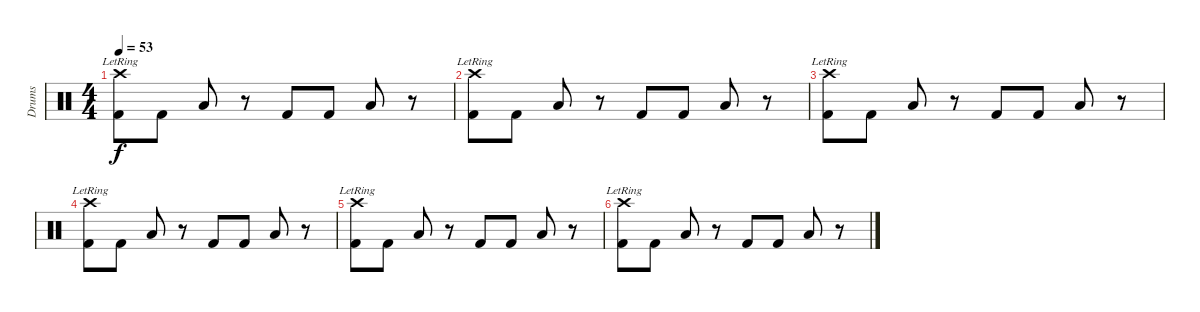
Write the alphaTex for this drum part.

\track ("Drums" "Drums") {instrument percussion}
\staff {score}
\articulation defaults
\ts (4 4)
\tempo 53
\clef neutral
\ks c
("Crash high (hit)"{lr} "Kick (hit) 2").8{dy f volume 16} "Kick (hit) 2".8{volume 16} "Low Floor Tom (hit)".8{volume 16} r.8 "Kick (hit) 2".8{volume 16} "Kick (hit) 2".8{volume 16} "Low Floor Tom (hit)".8{volume 16} r.8 |
("Crash high (hit)"{lr} "Kick (hit) 2").8{volume 16} "Kick (hit) 2".8{volume 16} "Low Floor Tom (hit)".8{volume 16} r.8 "Kick (hit) 2".8{volume 16} "Kick (hit) 2".8{volume 16} "Low Floor Tom (hit)".8{volume 16} r.8 |
("Crash high (hit)"{lr} "Kick (hit) 2").8{volume 16} "Kick (hit) 2".8{volume 16} "Low Floor Tom (hit)".8{volume 16} r.8 "Kick (hit) 2".8{volume 16} "Kick (hit) 2".8{volume 16} "Low Floor Tom (hit)".8{volume 16} r.8 |
("Crash high (hit)"{lr} "Kick (hit) 2").8{volume 16} "Kick (hit) 2".8{volume 16} "Low Floor Tom (hit)".8{volume 16} r.8 "Kick (hit) 2".8{volume 16} "Kick (hit) 2".8{volume 16} "Low Floor Tom (hit)".8{volume 16} r.8 |
("Crash high (hit)"{lr} "Kick (hit) 2").8{volume 16} "Kick (hit) 2".8{volume 16} "Low Floor Tom (hit)".8{volume 16} r.8 "Kick (hit) 2".8{volume 16} "Kick (hit) 2".8{volume 16} "Low Floor Tom (hit)".8{volume 16} r.8 |
("Crash high (hit)"{lr} "Kick (hit) 2").8{volume 16} "Kick (hit) 2".8{volume 16} "Low Floor Tom (hit)".8{volume 16} r.8 "Kick (hit) 2".8{volume 16} "Kick (hit) 2".8{volume 16} "Low Floor Tom (hit)".8{volume 16} r.8
